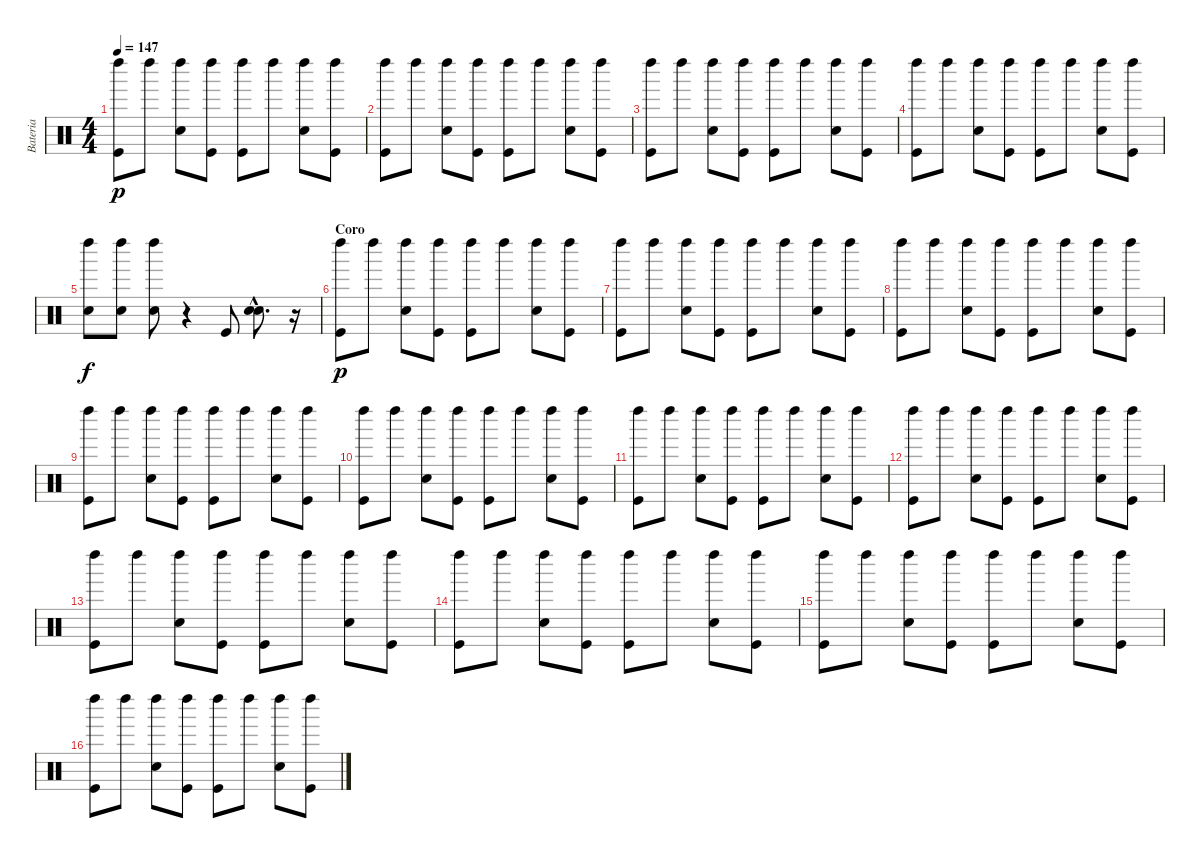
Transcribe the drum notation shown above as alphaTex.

\track ("Bateria" "Bateria") {instrument percussion}
\staff {score}
\articulation defaults
\ts (4 4)
\tempo 147
\clef neutral
\ks c
("Kick (hit)" "Left Maraca (hit)").8{dy p} "Left Maraca (hit)".8 ("Snare (hit) 2" "Left Maraca (hit)").8 ("Left Maraca (hit)" "Kick (hit)").8 ("Left Maraca (hit)" "Kick (hit)").8 "Left Maraca (hit)".8 ("Snare (hit) 2" "Left Maraca (hit)").8 ("Kick (hit)" "Left Maraca (hit)").8 |
("Kick (hit)" "Left Maraca (hit)").8 "Left Maraca (hit)".8 ("Snare (hit) 2" "Left Maraca (hit)").8 ("Left Maraca (hit)" "Kick (hit)").8 ("Left Maraca (hit)" "Kick (hit)").8 "Left Maraca (hit)".8 ("Snare (hit) 2" "Left Maraca (hit)").8 ("Kick (hit)" "Left Maraca (hit)").8 |
("Left Maraca (hit)" "Kick (hit)").8 "Left Maraca (hit)".8 ("Snare (hit) 2" "Left Maraca (hit)").8 ("Left Maraca (hit)" "Kick (hit)").8 ("Left Maraca (hit)" "Kick (hit)").8 "Left Maraca (hit)".8 ("Snare (hit) 2" "Left Maraca (hit)").8 ("Kick (hit)" "Left Maraca (hit)").8 |
("Kick (hit)" "Left Maraca (hit)").8 "Left Maraca (hit)".8 ("Snare (hit) 2" "Left Maraca (hit)").8 ("Left Maraca (hit)" "Kick (hit)").8 ("Left Maraca (hit)" "Kick (hit)").8 "Left Maraca (hit)".8 ("Snare (hit) 2" "Left Maraca (hit)").8 ("Kick (hit)" "Left Maraca (hit)").8 |
("Snare (hit) 2" "Left Maraca (hit)").8{dy f} ("Left Maraca (hit)" "Snare (hit) 2").8 ("Left Maraca (hit)" "Snare (hit) 2").8 r.4 "Kick (hit)".8 ("Snare (hit) 2" "Electric Snare (hit)"{hac}).8{d} r.16 |
\section ("" "Coro")
("Left Maraca (hit)" "Kick (hit)").8{dy p} "Left Maraca (hit)".8 ("Snare (hit) 2" "Left Maraca (hit)").8 ("Left Maraca (hit)" "Kick (hit)").8 ("Left Maraca (hit)" "Kick (hit)").8 "Left Maraca (hit)".8 ("Snare (hit) 2" "Left Maraca (hit)").8 ("Kick (hit)" "Left Maraca (hit)").8 |
("Left Maraca (hit)" "Kick (hit)").8 "Left Maraca (hit)".8 ("Snare (hit) 2" "Left Maraca (hit)").8 ("Left Maraca (hit)" "Kick (hit)").8 ("Left Maraca (hit)" "Kick (hit)").8 "Left Maraca (hit)".8 ("Snare (hit) 2" "Left Maraca (hit)").8 ("Kick (hit)" "Left Maraca (hit)").8 |
("Kick (hit)" "Left Maraca (hit)").8 "Left Maraca (hit)".8 ("Snare (hit) 2" "Left Maraca (hit)").8 ("Left Maraca (hit)" "Kick (hit)").8 ("Left Maraca (hit)" "Kick (hit)").8 "Left Maraca (hit)".8 ("Snare (hit) 2" "Left Maraca (hit)").8 ("Kick (hit)" "Left Maraca (hit)").8 |
("Left Maraca (hit)" "Kick (hit)").8 "Left Maraca (hit)".8 ("Snare (hit) 2" "Left Maraca (hit)").8 ("Left Maraca (hit)" "Kick (hit)").8 ("Left Maraca (hit)" "Kick (hit)").8 "Left Maraca (hit)".8 ("Snare (hit) 2" "Left Maraca (hit)").8 ("Kick (hit)" "Left Maraca (hit)").8 |
("Kick (hit)" "Left Maraca (hit)").8 "Left Maraca (hit)".8 ("Snare (hit) 2" "Left Maraca (hit)").8 ("Left Maraca (hit)" "Kick (hit)").8 ("Left Maraca (hit)" "Kick (hit)").8 "Left Maraca (hit)".8 ("Snare (hit) 2" "Left Maraca (hit)").8 ("Kick (hit)" "Left Maraca (hit)").8 |
("Left Maraca (hit)" "Kick (hit)").8 "Left Maraca (hit)".8 ("Snare (hit) 2" "Left Maraca (hit)").8 ("Left Maraca (hit)" "Kick (hit)").8 ("Left Maraca (hit)" "Kick (hit)").8 "Left Maraca (hit)".8 ("Snare (hit) 2" "Left Maraca (hit)").8 ("Kick (hit)" "Left Maraca (hit)").8 |
("Kick (hit)" "Left Maraca (hit)").8 "Left Maraca (hit)".8 ("Snare (hit) 2" "Left Maraca (hit)").8 ("Left Maraca (hit)" "Kick (hit)").8 ("Left Maraca (hit)" "Kick (hit)").8 "Left Maraca (hit)".8 ("Snare (hit) 2" "Left Maraca (hit)").8 ("Kick (hit)" "Left Maraca (hit)").8 |
("Left Maraca (hit)" "Kick (hit)").8 "Left Maraca (hit)".8 ("Snare (hit) 2" "Left Maraca (hit)").8 ("Left Maraca (hit)" "Kick (hit)").8 ("Left Maraca (hit)" "Kick (hit)").8 "Left Maraca (hit)".8 ("Snare (hit) 2" "Left Maraca (hit)").8 ("Kick (hit)" "Left Maraca (hit)").8 |
("Kick (hit)" "Left Maraca (hit)").8 "Left Maraca (hit)".8 ("Snare (hit) 2" "Left Maraca (hit)").8 ("Left Maraca (hit)" "Kick (hit)").8 ("Left Maraca (hit)" "Kick (hit)").8 "Left Maraca (hit)".8 ("Snare (hit) 2" "Left Maraca (hit)").8 ("Kick (hit)" "Left Maraca (hit)").8 |
("Left Maraca (hit)" "Kick (hit)").8 "Left Maraca (hit)".8 ("Snare (hit) 2" "Left Maraca (hit)").8 ("Left Maraca (hit)" "Kick (hit)").8 ("Left Maraca (hit)" "Kick (hit)").8 "Left Maraca (hit)".8 ("Snare (hit) 2" "Left Maraca (hit)").8 ("Kick (hit)" "Left Maraca (hit)").8 |
("Kick (hit)" "Left Maraca (hit)").8 "Left Maraca (hit)".8 ("Snare (hit) 2" "Left Maraca (hit)").8 ("Left Maraca (hit)" "Kick (hit)").8 ("Left Maraca (hit)" "Kick (hit)").8 "Left Maraca (hit)".8 ("Snare (hit) 2" "Left Maraca (hit)").8 ("Kick (hit)" "Left Maraca (hit)").8
